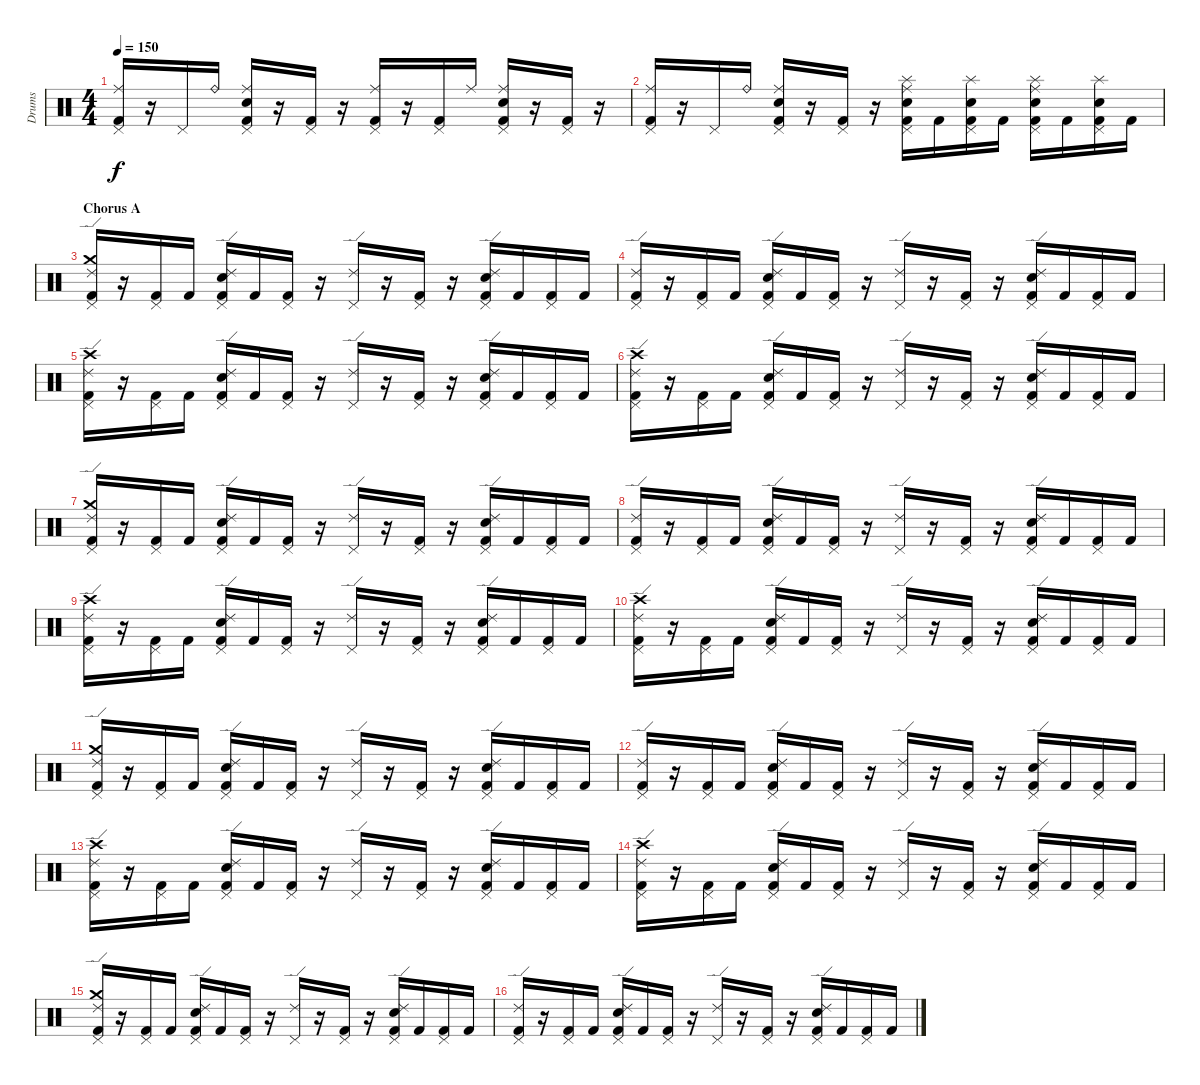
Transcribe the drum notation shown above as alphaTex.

\track ("Drums" "Drums") {instrument percussion}
\staff {score}
\articulation defaults
\ts (4 4)
\tempo 150
\clef neutral
\ks c
("Kick (hit) 2" "Pedal Hi-Hat (hit)" "Ride (middle)").16{dy f} r.16 "Pedal Hi-Hat (hit)".16 "Ride (bell)".16 ("Kick (hit) 2" "Pedal Hi-Hat (hit)" "Snare (hit) 2" "Ride (middle)").16 r.16 ("Kick (hit) 2" "Pedal Hi-Hat (hit)").16 r.16 ("Kick (hit) 2" "Pedal Hi-Hat (hit)" "Ride (middle)").16 r.16 ("Kick (hit) 2" "Pedal Hi-Hat (hit)").16 "Ride (middle)".16 ("Kick (hit) 2" "Pedal Hi-Hat (hit)" "Snare (hit) 2" "Ride (middle)").16 r.16 ("Kick (hit) 2" "Pedal Hi-Hat (hit)").16 r.16 |
("Kick (hit) 2" "Pedal Hi-Hat (hit)" "Ride (middle)").16 r.16 "Pedal Hi-Hat (hit)".16 "Ride (bell)".16 ("Kick (hit) 2" "Pedal Hi-Hat (hit)" "Snare (hit) 2" "Ride (middle)").16 r.16 ("Kick (hit) 2" "Pedal Hi-Hat (hit)").16 r.16 ("Kick (hit) 2" "Splash (hit)" "Pedal Hi-Hat (hit)" "Snare (hit) 2" "Ride (middle)").16 "Kick (hit) 2".16 ("Kick (hit) 2" "Splash (hit)" "Pedal Hi-Hat (hit)" "Snare (hit) 2").16 "Kick (hit) 2".16 ("Kick (hit) 2" "Splash (hit)" "Pedal Hi-Hat (hit)" "Snare (hit) 2" "Ride (middle)").16 "Kick (hit) 2".16 ("Kick (hit) 2" "Splash (hit)" "Pedal Hi-Hat (hit)" "Snare (hit) 2").16 "Kick (hit) 2".16 |
\section ("" "Chorus A")
("Kick (hit) 2" "Pedal Hi-Hat (hit)" "Crash medium (hit)" "Ride (edge) 2").16 r.16 ("Kick (hit) 2" "Pedal Hi-Hat (hit)").16 "Kick (hit) 2".16 ("Kick (hit) 2" "Snare (hit) 2" "Pedal Hi-Hat (hit)" "Ride (edge) 2").16 "Kick (hit) 2".16 ("Kick (hit) 2" "Pedal Hi-Hat (hit)").16 r.16 ("Pedal Hi-Hat (hit)" "Ride (edge) 2").16 r.16 ("Kick (hit) 2" "Pedal Hi-Hat (hit)").16 r.16 ("Kick (hit) 2" "Snare (hit) 2" "Pedal Hi-Hat (hit)" "Ride (edge) 2").16 "Kick (hit) 2".16 ("Kick (hit) 2" "Pedal Hi-Hat (hit)").16 "Kick (hit) 2".16 |
("Kick (hit) 2" "Pedal Hi-Hat (hit)" "Ride (edge) 2").16 r.16 ("Kick (hit) 2" "Pedal Hi-Hat (hit)").16 "Kick (hit) 2".16 ("Kick (hit) 2" "Snare (hit) 2" "Pedal Hi-Hat (hit)" "Ride (edge) 2").16 "Kick (hit) 2".16 ("Kick (hit) 2" "Pedal Hi-Hat (hit)").16 r.16 ("Pedal Hi-Hat (hit)" "Ride (edge) 2").16 r.16 ("Kick (hit) 2" "Pedal Hi-Hat (hit)").16 r.16 ("Kick (hit) 2" "Snare (hit) 2" "Pedal Hi-Hat (hit)" "Ride (edge) 2").16 "Kick (hit) 2".16 ("Kick (hit) 2" "Pedal Hi-Hat (hit)").16 "Kick (hit) 2".16 |
("Kick (hit) 2" "Pedal Hi-Hat (hit)" "Crash high (hit)" "Ride (edge) 2").16 r.16 ("Kick (hit) 2" "Pedal Hi-Hat (hit)").16 "Kick (hit) 2".16 ("Kick (hit) 2" "Snare (hit) 2" "Pedal Hi-Hat (hit)" "Ride (edge) 2").16 "Kick (hit) 2".16 ("Kick (hit) 2" "Pedal Hi-Hat (hit)").16 r.16 ("Pedal Hi-Hat (hit)" "Ride (edge) 2").16 r.16 ("Kick (hit) 2" "Pedal Hi-Hat (hit)").16 r.16 ("Kick (hit) 2" "Snare (hit) 2" "Pedal Hi-Hat (hit)" "Ride (edge) 2").16 "Kick (hit) 2".16 ("Kick (hit) 2" "Pedal Hi-Hat (hit)").16 "Kick (hit) 2".16 |
("Kick (hit) 2" "Pedal Hi-Hat (hit)" "Crash high (hit)" "Ride (edge) 2").16 r.16 ("Kick (hit) 2" "Pedal Hi-Hat (hit)").16 "Kick (hit) 2".16 ("Kick (hit) 2" "Snare (hit) 2" "Pedal Hi-Hat (hit)" "Ride (edge) 2").16 "Kick (hit) 2".16 ("Kick (hit) 2" "Pedal Hi-Hat (hit)").16 r.16 ("Pedal Hi-Hat (hit)" "Ride (edge) 2").16 r.16 ("Kick (hit) 2" "Pedal Hi-Hat (hit)").16 r.16 ("Kick (hit) 2" "Snare (hit) 2" "Pedal Hi-Hat (hit)" "Ride (edge) 2").16 "Kick (hit) 2".16 ("Kick (hit) 2" "Pedal Hi-Hat (hit)").16 "Kick (hit) 2".16 |
("Kick (hit) 2" "Pedal Hi-Hat (hit)" "Crash medium (hit)" "Ride (edge) 2").16 r.16 ("Kick (hit) 2" "Pedal Hi-Hat (hit)").16 "Kick (hit) 2".16 ("Kick (hit) 2" "Snare (hit) 2" "Pedal Hi-Hat (hit)" "Ride (edge) 2").16 "Kick (hit) 2".16 ("Kick (hit) 2" "Pedal Hi-Hat (hit)").16 r.16 ("Pedal Hi-Hat (hit)" "Ride (edge) 2").16 r.16 ("Kick (hit) 2" "Pedal Hi-Hat (hit)").16 r.16 ("Kick (hit) 2" "Snare (hit) 2" "Pedal Hi-Hat (hit)" "Ride (edge) 2").16 "Kick (hit) 2".16 ("Kick (hit) 2" "Pedal Hi-Hat (hit)").16 "Kick (hit) 2".16 |
("Kick (hit) 2" "Pedal Hi-Hat (hit)" "Ride (edge) 2").16 r.16 ("Kick (hit) 2" "Pedal Hi-Hat (hit)").16 "Kick (hit) 2".16 ("Kick (hit) 2" "Snare (hit) 2" "Pedal Hi-Hat (hit)" "Ride (edge) 2").16 "Kick (hit) 2".16 ("Kick (hit) 2" "Pedal Hi-Hat (hit)").16 r.16 ("Pedal Hi-Hat (hit)" "Ride (edge) 2").16 r.16 ("Kick (hit) 2" "Pedal Hi-Hat (hit)").16 r.16 ("Kick (hit) 2" "Snare (hit) 2" "Pedal Hi-Hat (hit)" "Ride (edge) 2").16 "Kick (hit) 2".16 ("Kick (hit) 2" "Pedal Hi-Hat (hit)").16 "Kick (hit) 2".16 |
("Kick (hit) 2" "Pedal Hi-Hat (hit)" "Crash high (hit)" "Ride (edge) 2").16 r.16 ("Kick (hit) 2" "Pedal Hi-Hat (hit)").16 "Kick (hit) 2".16 ("Kick (hit) 2" "Snare (hit) 2" "Pedal Hi-Hat (hit)" "Ride (edge) 2").16 "Kick (hit) 2".16 ("Kick (hit) 2" "Pedal Hi-Hat (hit)").16 r.16 ("Pedal Hi-Hat (hit)" "Ride (edge) 2").16 r.16 ("Kick (hit) 2" "Pedal Hi-Hat (hit)").16 r.16 ("Kick (hit) 2" "Snare (hit) 2" "Pedal Hi-Hat (hit)" "Ride (edge) 2").16 "Kick (hit) 2".16 ("Kick (hit) 2" "Pedal Hi-Hat (hit)").16 "Kick (hit) 2".16 |
("Kick (hit) 2" "Pedal Hi-Hat (hit)" "Crash high (hit)" "Ride (edge) 2").16 r.16 ("Kick (hit) 2" "Pedal Hi-Hat (hit)").16 "Kick (hit) 2".16 ("Kick (hit) 2" "Snare (hit) 2" "Pedal Hi-Hat (hit)" "Ride (edge) 2").16 "Kick (hit) 2".16 ("Kick (hit) 2" "Pedal Hi-Hat (hit)").16 r.16 ("Pedal Hi-Hat (hit)" "Ride (edge) 2").16 r.16 ("Kick (hit) 2" "Pedal Hi-Hat (hit)").16 r.16 ("Kick (hit) 2" "Snare (hit) 2" "Pedal Hi-Hat (hit)" "Ride (edge) 2").16 "Kick (hit) 2".16 ("Kick (hit) 2" "Pedal Hi-Hat (hit)").16 "Kick (hit) 2".16 |
("Kick (hit) 2" "Pedal Hi-Hat (hit)" "Crash medium (hit)" "Ride (edge) 2").16 r.16 ("Kick (hit) 2" "Pedal Hi-Hat (hit)").16 "Kick (hit) 2".16 ("Kick (hit) 2" "Snare (hit) 2" "Pedal Hi-Hat (hit)" "Ride (edge) 2").16 "Kick (hit) 2".16 ("Kick (hit) 2" "Pedal Hi-Hat (hit)").16 r.16 ("Pedal Hi-Hat (hit)" "Ride (edge) 2").16 r.16 ("Kick (hit) 2" "Pedal Hi-Hat (hit)").16 r.16 ("Kick (hit) 2" "Snare (hit) 2" "Pedal Hi-Hat (hit)" "Ride (edge) 2").16 "Kick (hit) 2".16 ("Kick (hit) 2" "Pedal Hi-Hat (hit)").16 "Kick (hit) 2".16 |
("Kick (hit) 2" "Pedal Hi-Hat (hit)" "Ride (edge) 2").16 r.16 ("Kick (hit) 2" "Pedal Hi-Hat (hit)").16 "Kick (hit) 2".16 ("Kick (hit) 2" "Snare (hit) 2" "Pedal Hi-Hat (hit)" "Ride (edge) 2").16 "Kick (hit) 2".16 ("Kick (hit) 2" "Pedal Hi-Hat (hit)").16 r.16 ("Pedal Hi-Hat (hit)" "Ride (edge) 2").16 r.16 ("Kick (hit) 2" "Pedal Hi-Hat (hit)").16 r.16 ("Kick (hit) 2" "Snare (hit) 2" "Pedal Hi-Hat (hit)" "Ride (edge) 2").16 "Kick (hit) 2".16 ("Kick (hit) 2" "Pedal Hi-Hat (hit)").16 "Kick (hit) 2".16 |
("Kick (hit) 2" "Pedal Hi-Hat (hit)" "Crash high (hit)" "Ride (edge) 2").16 r.16 ("Kick (hit) 2" "Pedal Hi-Hat (hit)").16 "Kick (hit) 2".16 ("Kick (hit) 2" "Snare (hit) 2" "Pedal Hi-Hat (hit)" "Ride (edge) 2").16 "Kick (hit) 2".16 ("Kick (hit) 2" "Pedal Hi-Hat (hit)").16 r.16 ("Pedal Hi-Hat (hit)" "Ride (edge) 2").16 r.16 ("Kick (hit) 2" "Pedal Hi-Hat (hit)").16 r.16 ("Kick (hit) 2" "Snare (hit) 2" "Pedal Hi-Hat (hit)" "Ride (edge) 2").16 "Kick (hit) 2".16 ("Kick (hit) 2" "Pedal Hi-Hat (hit)").16 "Kick (hit) 2".16 |
("Kick (hit) 2" "Pedal Hi-Hat (hit)" "Crash high (hit)" "Ride (edge) 2").16 r.16 ("Kick (hit) 2" "Pedal Hi-Hat (hit)").16 "Kick (hit) 2".16 ("Kick (hit) 2" "Snare (hit) 2" "Pedal Hi-Hat (hit)" "Ride (edge) 2").16 "Kick (hit) 2".16 ("Kick (hit) 2" "Pedal Hi-Hat (hit)").16 r.16 ("Pedal Hi-Hat (hit)" "Ride (edge) 2").16 r.16 ("Kick (hit) 2" "Pedal Hi-Hat (hit)").16 r.16 ("Kick (hit) 2" "Snare (hit) 2" "Pedal Hi-Hat (hit)" "Ride (edge) 2").16 "Kick (hit) 2".16 ("Kick (hit) 2" "Pedal Hi-Hat (hit)").16 "Kick (hit) 2".16 |
("Kick (hit) 2" "Pedal Hi-Hat (hit)" "Crash medium (hit)" "Ride (edge) 2").16 r.16 ("Kick (hit) 2" "Pedal Hi-Hat (hit)").16 "Kick (hit) 2".16 ("Kick (hit) 2" "Snare (hit) 2" "Pedal Hi-Hat (hit)" "Ride (edge) 2").16 "Kick (hit) 2".16 ("Kick (hit) 2" "Pedal Hi-Hat (hit)").16 r.16 ("Pedal Hi-Hat (hit)" "Ride (edge) 2").16 r.16 ("Kick (hit) 2" "Pedal Hi-Hat (hit)").16 r.16 ("Kick (hit) 2" "Snare (hit) 2" "Pedal Hi-Hat (hit)" "Ride (edge) 2").16 "Kick (hit) 2".16 ("Kick (hit) 2" "Pedal Hi-Hat (hit)").16 "Kick (hit) 2".16 |
("Kick (hit) 2" "Pedal Hi-Hat (hit)" "Ride (edge) 2").16 r.16 ("Kick (hit) 2" "Pedal Hi-Hat (hit)").16 "Kick (hit) 2".16 ("Kick (hit) 2" "Snare (hit) 2" "Pedal Hi-Hat (hit)" "Ride (edge) 2").16 "Kick (hit) 2".16 ("Kick (hit) 2" "Pedal Hi-Hat (hit)").16 r.16 ("Pedal Hi-Hat (hit)" "Ride (edge) 2").16 r.16 ("Kick (hit) 2" "Pedal Hi-Hat (hit)").16 r.16 ("Kick (hit) 2" "Snare (hit) 2" "Pedal Hi-Hat (hit)" "Ride (edge) 2").16 "Kick (hit) 2".16 ("Kick (hit) 2" "Pedal Hi-Hat (hit)").16 "Kick (hit) 2".16
